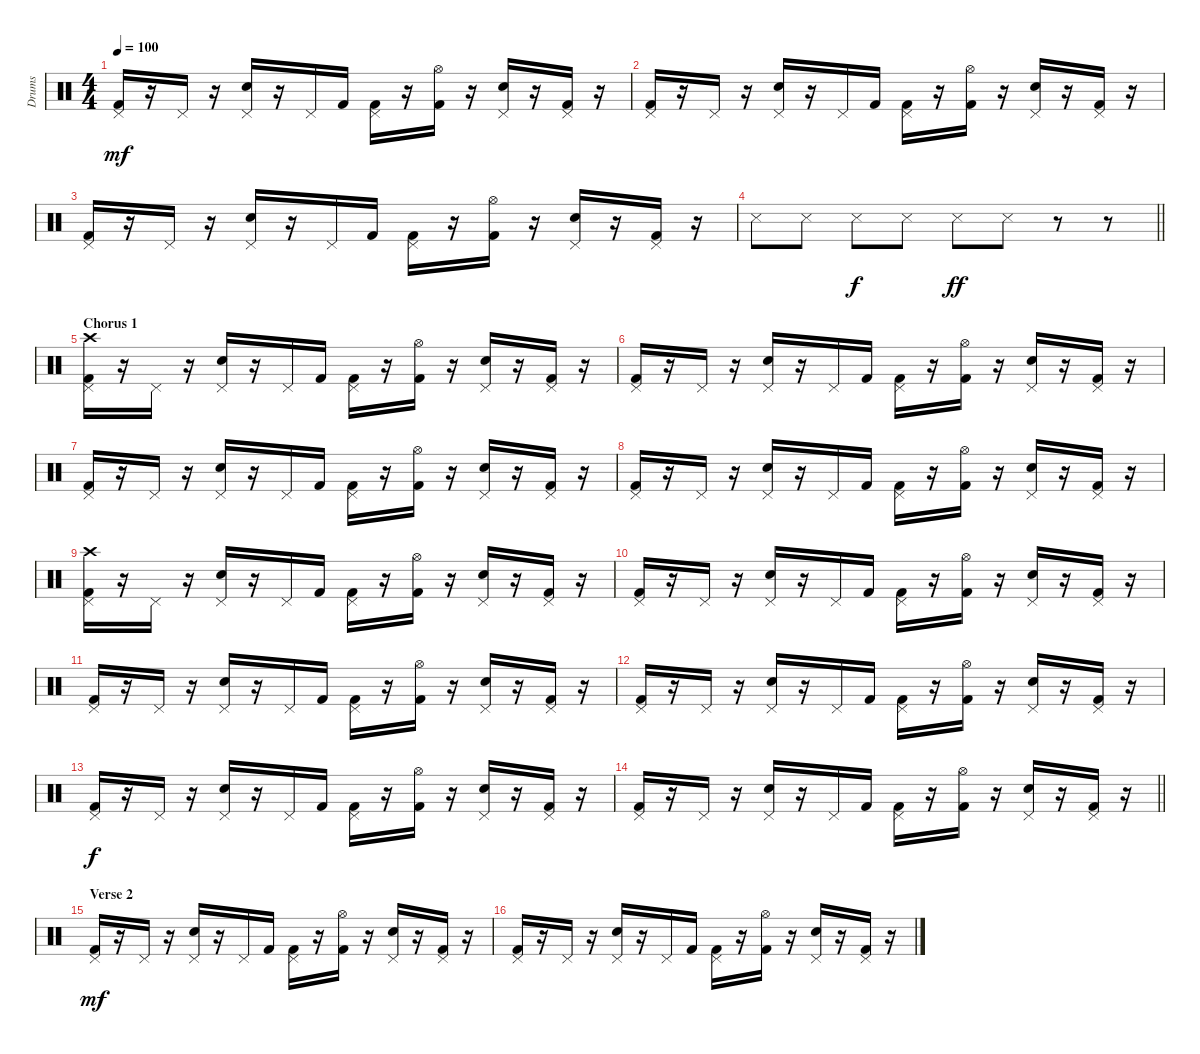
\track ("Drums" "Drums") {instrument percussion}
\staff {score}
\articulation defaults
\ts (4 4)
\tempo 100
\clef neutral
\ks c
("Pedal Hi-Hat (hit)" "Kick (hit) 2").16{dy mf} r.16 "Pedal Hi-Hat (hit)".16 r.16 ("Pedal Hi-Hat (hit)" "Electric Snare (hit)").16 r.16 "Pedal Hi-Hat (hit)".16 "Kick (hit) 2".16 ("Pedal Hi-Hat (hit)" "Kick (hit) 2").16 r.16 ("Hi-Hat (open)" "Kick (hit) 2").16 r.16 ("Pedal Hi-Hat (hit)" "Electric Snare (hit)").16 r.16 ("Pedal Hi-Hat (hit)" "Kick (hit) 2").16 r.16 |
("Pedal Hi-Hat (hit)" "Kick (hit) 2").16 r.16 "Pedal Hi-Hat (hit)".16 r.16 ("Pedal Hi-Hat (hit)" "Electric Snare (hit)").16 r.16 "Pedal Hi-Hat (hit)".16 "Kick (hit) 2".16 ("Pedal Hi-Hat (hit)" "Kick (hit) 2").16 r.16 ("Hi-Hat (open)" "Kick (hit) 2").16 r.16 ("Pedal Hi-Hat (hit)" "Electric Snare (hit)").16 r.16 ("Pedal Hi-Hat (hit)" "Kick (hit) 2").16 r.16 |
("Pedal Hi-Hat (hit)" "Kick (hit) 2").16 r.16 "Pedal Hi-Hat (hit)".16 r.16 ("Pedal Hi-Hat (hit)" "Electric Snare (hit)").16 r.16 "Pedal Hi-Hat (hit)".16 "Kick (hit) 2".16 ("Pedal Hi-Hat (hit)" "Kick (hit) 2").16 r.16 ("Hi-Hat (open)" "Kick (hit) 2").16 r.16 ("Pedal Hi-Hat (hit)" "Electric Snare (hit)").16 r.16 ("Pedal Hi-Hat (hit)" "Kick (hit) 2").16 r.16 |
\barLineRight lightlight "Metronome (hit)".8 "Metronome (hit)".8 "Metronome (hit)".8{dy f} "Metronome (hit)".8 "Metronome (hit)".8{dy ff} "Metronome (hit)".8
r.8 r.8 |
\section ("" "Chorus 1")
("Pedal Hi-Hat (hit)" "Crash high (hit)" "Kick (hit) 2").16 r.16 "Pedal Hi-Hat (hit)".16 r.16 ("Pedal Hi-Hat (hit)" "Electric Snare (hit)").16 r.16 "Pedal Hi-Hat (hit)".16 "Kick (hit) 2".16 ("Pedal Hi-Hat (hit)" "Kick (hit) 2").16 r.16 ("Hi-Hat (open)" "Kick (hit) 2").16 r.16 ("Pedal Hi-Hat (hit)" "Electric Snare (hit)").16 r.16 ("Pedal Hi-Hat (hit)" "Kick (hit) 2").16 r.16 |
("Pedal Hi-Hat (hit)" "Kick (hit) 2").16 r.16 "Pedal Hi-Hat (hit)".16 r.16 ("Pedal Hi-Hat (hit)" "Electric Snare (hit)").16 r.16 "Pedal Hi-Hat (hit)".16 "Kick (hit) 2".16 ("Pedal Hi-Hat (hit)" "Kick (hit) 2").16 r.16 ("Hi-Hat (open)" "Kick (hit) 2").16 r.16 ("Pedal Hi-Hat (hit)" "Electric Snare (hit)").16 r.16 ("Pedal Hi-Hat (hit)" "Kick (hit) 2").16 r.16 |
("Pedal Hi-Hat (hit)" "Kick (hit) 2").16 r.16 "Pedal Hi-Hat (hit)".16 r.16 ("Pedal Hi-Hat (hit)" "Electric Snare (hit)").16 r.16 "Pedal Hi-Hat (hit)".16 "Kick (hit) 2".16 ("Pedal Hi-Hat (hit)" "Kick (hit) 2").16 r.16 ("Hi-Hat (open)" "Kick (hit) 2").16 r.16 ("Pedal Hi-Hat (hit)" "Electric Snare (hit)").16 r.16 ("Pedal Hi-Hat (hit)" "Kick (hit) 2").16 r.16 |
("Pedal Hi-Hat (hit)" "Kick (hit) 2").16 r.16 "Pedal Hi-Hat (hit)".16 r.16 ("Pedal Hi-Hat (hit)" "Electric Snare (hit)").16 r.16 "Pedal Hi-Hat (hit)".16 "Kick (hit) 2".16 ("Pedal Hi-Hat (hit)" "Kick (hit) 2").16 r.16 ("Hi-Hat (open)" "Kick (hit) 2").16 r.16 ("Pedal Hi-Hat (hit)" "Electric Snare (hit)").16 r.16 ("Pedal Hi-Hat (hit)" "Kick (hit) 2").16 r.16 |
("Pedal Hi-Hat (hit)" "Crash high (hit)" "Kick (hit) 2").16 r.16 "Pedal Hi-Hat (hit)".16 r.16 ("Pedal Hi-Hat (hit)" "Electric Snare (hit)").16 r.16 "Pedal Hi-Hat (hit)".16 "Kick (hit) 2".16 ("Pedal Hi-Hat (hit)" "Kick (hit) 2").16 r.16 ("Hi-Hat (open)" "Kick (hit) 2").16 r.16 ("Pedal Hi-Hat (hit)" "Electric Snare (hit)").16 r.16 ("Pedal Hi-Hat (hit)" "Kick (hit) 2").16 r.16 |
("Pedal Hi-Hat (hit)" "Kick (hit) 2").16 r.16 "Pedal Hi-Hat (hit)".16 r.16 ("Pedal Hi-Hat (hit)" "Electric Snare (hit)").16 r.16 "Pedal Hi-Hat (hit)".16 "Kick (hit) 2".16 ("Pedal Hi-Hat (hit)" "Kick (hit) 2").16 r.16 ("Hi-Hat (open)" "Kick (hit) 2").16 r.16 ("Pedal Hi-Hat (hit)" "Electric Snare (hit)").16 r.16 ("Pedal Hi-Hat (hit)" "Kick (hit) 2").16 r.16 |
("Pedal Hi-Hat (hit)" "Kick (hit) 2").16 r.16 "Pedal Hi-Hat (hit)".16 r.16 ("Pedal Hi-Hat (hit)" "Electric Snare (hit)").16 r.16 "Pedal Hi-Hat (hit)".16 "Kick (hit) 2".16 ("Pedal Hi-Hat (hit)" "Kick (hit) 2").16 r.16 ("Hi-Hat (open)" "Kick (hit) 2").16 r.16 ("Pedal Hi-Hat (hit)" "Electric Snare (hit)").16 r.16 ("Pedal Hi-Hat (hit)" "Kick (hit) 2").16 r.16 |
("Pedal Hi-Hat (hit)" "Kick (hit) 2").16 r.16 "Pedal Hi-Hat (hit)".16 r.16 ("Pedal Hi-Hat (hit)" "Electric Snare (hit)").16 r.16 "Pedal Hi-Hat (hit)".16 "Kick (hit) 2".16 ("Pedal Hi-Hat (hit)" "Kick (hit) 2").16 r.16 ("Hi-Hat (open)" "Kick (hit) 2").16 r.16 ("Pedal Hi-Hat (hit)" "Electric Snare (hit)").16 r.16 ("Pedal Hi-Hat (hit)" "Kick (hit) 2").16 r.16 |
("Pedal Hi-Hat (hit)" "Kick (hit) 2").16{dy f} r.16 "Pedal Hi-Hat (hit)".16 r.16 ("Pedal Hi-Hat (hit)" "Electric Snare (hit)").16 r.16 "Pedal Hi-Hat (hit)".16 "Kick (hit) 2".16 ("Pedal Hi-Hat (hit)" "Kick (hit) 2").16 r.16 ("Hi-Hat (open)" "Kick (hit) 2").16 r.16 ("Pedal Hi-Hat (hit)" "Electric Snare (hit)").16 r.16 ("Pedal Hi-Hat (hit)" "Kick (hit) 2").16 r.16 |
\barLineRight lightlight
("Pedal Hi-Hat (hit)" "Kick (hit) 2").16 r.16 "Pedal Hi-Hat (hit)".16 r.16 ("Pedal Hi-Hat (hit)" "Electric Snare (hit)").16 r.16 "Pedal Hi-Hat (hit)".16 "Kick (hit) 2".16 ("Pedal Hi-Hat (hit)" "Kick (hit) 2").16 r.16 ("Hi-Hat (open)" "Kick (hit) 2").16 r.16 ("Pedal Hi-Hat (hit)" "Electric Snare (hit)").16 r.16 ("Pedal Hi-Hat (hit)" "Kick (hit) 2").16 r.16 |
\section ("" "Verse 2")
("Pedal Hi-Hat (hit)" "Kick (hit) 2").16{dy mf} r.16 "Pedal Hi-Hat (hit)".16 r.16 ("Pedal Hi-Hat (hit)" "Electric Snare (hit)").16 r.16 "Pedal Hi-Hat (hit)".16 "Kick (hit) 2".16 ("Pedal Hi-Hat (hit)" "Kick (hit) 2").16 r.16 ("Hi-Hat (open)" "Kick (hit) 2").16 r.16 ("Pedal Hi-Hat (hit)" "Electric Snare (hit)").16 r.16 ("Pedal Hi-Hat (hit)" "Kick (hit) 2").16 r.16 |
("Pedal Hi-Hat (hit)" "Kick (hit) 2").16 r.16 "Pedal Hi-Hat (hit)".16 r.16 ("Pedal Hi-Hat (hit)" "Electric Snare (hit)").16 r.16 "Pedal Hi-Hat (hit)".16 "Kick (hit) 2".16 ("Pedal Hi-Hat (hit)" "Kick (hit) 2").16 r.16 ("Hi-Hat (open)" "Kick (hit) 2").16 r.16 ("Pedal Hi-Hat (hit)" "Electric Snare (hit)").16 r.16 ("Pedal Hi-Hat (hit)" "Kick (hit) 2").16 r.16
